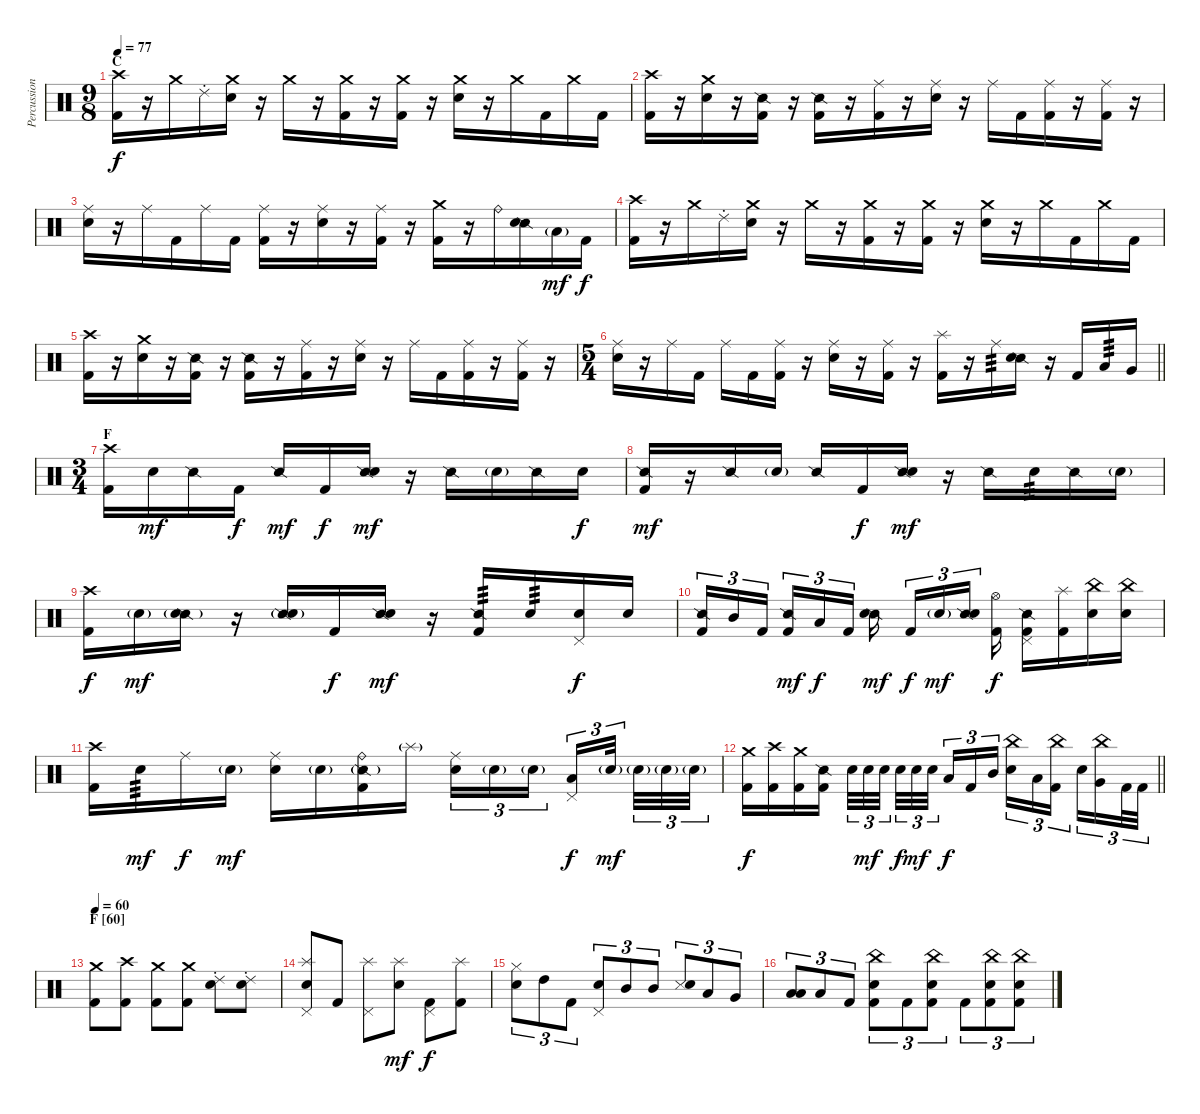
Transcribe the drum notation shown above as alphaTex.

\track ("Percussion" "Percussion") {solo instrument percussion}
\staff {score}
\articulation defaults
\ts (9 8)
\section ("" "C")
\tempo 77
\clef neutral
\ks c
("Crash high (hit)" "Kick (hit) 2").16{dy f} r.16 "Crash medium (hit)".16 "Ride (choke) 2".16 ("Crash medium (hit)" "Snare (hit) 2").16 r.16 "Crash medium (hit)".16 r.16 ("Crash medium (hit)" "Kick (hit) 2").16 r.16 ("Crash medium (hit)" "Kick (hit) 2").16 r.16 ("Crash medium (hit)" "Snare (hit) 2").16 r.16 "Crash medium (hit)".16 "Kick (hit) 2".16 "Crash medium (hit)".16 "Kick (hit) 2".16 |
("Crash high (hit)" "Kick (hit) 2").16 r.16 ("Crash medium (hit)" "Snare (hit) 2").16 r.16 ("Snare (side stick) 2" "Kick (hit) 2").16 r.16 ("Snare (side stick) 2" "Kick (hit) 2").16 r.16 ("Ride (middle)" "Kick (hit) 2").16 r.16 ("Ride (middle)" "Snare (hit) 2").16 r.16 "Ride (middle)".16 "Kick (hit) 2".16 ("Ride (middle)" "Kick (hit) 2").16 r.16 ("Ride (middle)" "Kick (hit) 2").16 r.16 |
("Ride (middle)" "Snare (hit) 2").16 r.16 "Ride (middle)".16 "Kick (hit) 2".16 "Ride (middle)".16 "Kick (hit) 2".16 ("Ride (middle)" "Kick (hit) 2").16 r.16 ("Ride (middle)" "Snare (hit) 2").16 r.16 ("Ride (middle)" "Kick (hit) 2").16 r.16 ("Crash medium (hit)" "Kick (hit) 2").16 r.16 "Ride (bell)".16 ("Snare (side stick) 2" "Snare (hit) 2").16 "Low Tom (hit)"{g}.16{dy mf} "Kick (hit) 2".16{dy f} |
("Crash high (hit)" "Kick (hit) 2").16 r.16 "Crash medium (hit)".16 "Ride (choke) 2".16 ("Crash medium (hit)" "Snare (hit) 2").16 r.16 "Crash medium (hit)".16 r.16 ("Crash medium (hit)" "Kick (hit) 2").16 r.16 ("Crash medium (hit)" "Kick (hit) 2").16 r.16 ("Crash medium (hit)" "Snare (hit) 2").16 r.16 "Crash medium (hit)".16 "Kick (hit) 2".16 "Crash medium (hit)".16 "Kick (hit) 2".16 |
("Crash high (hit)" "Kick (hit) 2").16 r.16 ("Crash medium (hit)" "Snare (hit) 2").16 r.16 ("Snare (side stick) 2" "Kick (hit) 2").16 r.16 ("Snare (side stick) 2" "Kick (hit) 2").16 r.16 ("Ride (middle)" "Kick (hit) 2").16 r.16 ("Ride (middle)" "Snare (hit) 2").16 r.16 "Ride (middle)".16 "Kick (hit) 2".16 ("Ride (middle)" "Kick (hit) 2").16 r.16 ("Ride (middle)" "Kick (hit) 2").16 r.16 |
\ts (5 4)
\barLineRight lightlight
("Ride (middle)" "Snare (hit) 2").16 r.16 "Ride (middle)".16 "Kick (hit) 2".16 "Ride (middle)".16 "Kick (hit) 2".16 ("Ride (middle)" "Kick (hit) 2").16 r.16 ("Ride (middle)" "Snare (hit) 2").16 r.16 ("Ride (middle)" "Kick (hit) 2").16 r.16 ("Splash (hit)" "Kick (hit) 2").16 r.16 "Ride (middle)".16{tp 3} ("Snare (side stick) 2" "Snare (hit) 2").16 r.16 "Kick (hit) 2".16 "Low Tom (hit)".16{tp 3} "Very Low Tom (hit)".16 |
\ts (3 4)
\section ("" "F")
("Crash high (hit)" "Kick (hit) 2").16 "Snare (hit) 2".16{dy mf} "Snare (side stick) 2".16 "Kick (hit) 2".16{dy f} "Snare (side stick) 2".16{dy mf} "Kick (hit) 2".16{dy f} ("Snare (side stick) 2" "Snare (hit) 2").16{dy mf} r.16 "Snare (side stick) 2".16 "Snare (hit) 2"{g}.16 "Snare (side stick) 2".16 "Snare (hit) 2".16{dy f} |
("Snare (side stick) 2" "Kick (hit) 2").16{dy mf} r.16 "Snare (side stick) 2".16 "Snare (hit) 2"{g}.16 "Snare (side stick) 2".16 "Kick (hit) 2".16{dy f} ("Snare (side stick) 2" "Snare (hit) 2").16{dy mf} r.16 "Snare (side stick) 2".16 "Snare (hit) 2".16{tp 3} "Snare (side stick) 2".16 "Snare (hit) 2"{g}.16 |
("Crash high (hit)" "Kick (hit) 2").16{dy f} "Snare (hit) 2"{g}.16{dy mf} ("Snare (side stick) 2" "Snare (hit) 2"{g}).16 r.16 ("Snare (side stick) 2" "Snare (hit) 2"{g}).16 "Kick (hit) 2".16{dy f} ("Snare (side stick) 2" "Snare (hit) 2").16{dy mf} r.16 ("Snare (side stick) 2" "Kick (hit) 2").16{tp 3} "Snare (hit) 2".16{tp 3} ("Pedal Hi-Hat (hit)" "Snare (hit) 2").16{dy f} "Snare (hit) 2".16 |
("Snare (side stick) 2" "Kick (hit) 2").16{tu (3 2)} "Mid Tom (hit)".16{tu (3 2)} "Kick (hit) 2".16{tu (3 2) beam splitsecondary} ("Snare (side stick) 2" "Kick (hit) 2").16{tu (3 2) dy mf} "Low Tom (hit)".16{tu (3 2) dy f} "Kick (hit) 2".16{tu (3 2)} ("Snare (side stick) 2" "Snare (hit) 2").16{dy mf beam splitsecondary} "Kick (hit) 2".16{tu (3 2) dy f} "Snare (hit) 2"{g}.16{tu (3 2) dy mf} ("Snare (side stick) 2" "Snare (hit) 2").16{tu (3 2) beam splitsecondary} ("Hi-Hat (open)" "Kick (hit) 2").16{dy f} ("Snare (side stick) 2" "Pedal Hi-Hat (hit)" "Kick (hit) 2").16 ("Splash (hit)" "Kick (hit) 2").16 ("China (hit)" "Snare (hit) 2").16 ("China (hit)" "Snare (hit) 2").16 |
("Crash high (hit)" "Kick (hit) 2").16 "Snare (hit) 2".16{tp 3 dy mf} "Ride (middle)".16{dy f} "Snare (hit) 2"{g}.16{dy mf} ("Ride (middle)" "Snare (hit) 2").16 "Snare (hit) 2"{g}.16 ("Ride (bell)" "Snare (side stick) 2"{g} "Kick (hit) 2").16 "Splash (hit)"{g}.16 ("Ride (middle)" "Snare (hit) 2").16{tu (3 2)} "Snare (hit) 2"{g}.16{tu (3 2)} "Snare (hit) 2"{g}.16{tu (3 2) beam splitsecondary} ("Pedal Hi-Hat (hit)" "Low Tom (hit)").16{tu (3 2) dy f} "Snare (hit) 2"{g}.32{tu (3 2) dy mf beam splitsecondary} "Snare (hit) 2"{g}.32{tu (3 2)} "Snare (hit) 2"{g}.32{tu (3 2)} "Snare (hit) 2"{g}.32{tu (3 2)} |
\barLineRight lightlight
("Crash medium (hit)" "Kick (hit) 2").16{dy f} ("Crash high (hit)" "Kick (hit) 2").16 ("Crash medium (hit)" "Kick (hit) 2").16 ("Snare (side stick) 2" "Kick (hit) 2").16 "Snare (hit) 2".32{tu (3 2)} "Snare (hit) 2".32{tu (3 2) dy mf} "Snare (hit) 2".32{tu (3 2) beam splitsecondary} "Snare (hit) 2".32{tu (3 2) dy f} "Snare (hit) 2".32{tu (3 2) dy mf} "Snare (hit) 2".32{tu (3 2) beam splitsecondary} "Low Tom (hit)".16{tu (3 2) dy f} "Kick (hit) 2".16{tu (3 2)} "Mid Tom (hit)".16{tu (3 2)} ("China (hit)" "Snare (hit) 2").16{tu (3 2)} "Low Tom (hit)".16{tu (3 2)} ("China (hit)" "Kick (hit) 2").16{tu (3 2) beam splitsecondary} "Snare (hit) 2".16{tu (3 2)} ("China (hit)" "Very Low Tom (hit)").16{tu (3 2)} "Kick (hit) 2".32{tu (3 2)} "Kick (hit) 2".32{tu (3 2)} |
\section ("" "F [60]")
\tempo 60
("Crash medium (hit)" "Kick (hit) 2").8 ("Crash high (hit)" "Kick (hit) 2").8 ("Crash medium (hit)" "Kick (hit) 2").8 ("Crash medium (hit)" "Kick (hit) 2").8 ("Ride (choke) 2" "Snare (hit) 2").8 ("Ride (choke) 2" "Snare (hit) 2").8 |
("Splash (hit)" "Pedal Hi-Hat (hit)" "Snare (hit) 2").8 "Kick (hit) 2".8 ("Splash (hit)" "Pedal Hi-Hat (hit)").8 ("Splash (hit)" "Snare (hit) 2").8{dy mf} ("Pedal Hi-Hat (hit)" "Kick (hit) 2").8{dy f} ("Splash (hit)" "Kick (hit) 2").8 |
("Hi-Hat (closed)" "Snare (hit) 2").8{tu (3 2)} "High Tom (hit)".8{tu (3 2)} "Kick (hit) 2".8{tu (3 2)} ("Pedal Hi-Hat (hit)" "Snare (hit) 2").8{tu (3 2)} "Mid Tom (hit)".8{tu (3 2)} "Mid Tom (hit)".8{tu (3 2)} ("Metronome (hit)" "Snare (hit) 2").8{tu (3 2) bu 480} "Low Tom (hit)".8{tu (3 2)} "Very Low Tom (hit)".8{tu (3 2)} |
("Low Floor Tom (hit)" "Low Floor Tom (hit)").8{tu (3 2) bu 480} "Low Floor Tom (hit)".8{tu (3 2)} "Kick (hit) 2".8{tu (3 2)} ("China (hit)" "Snare (hit) 2" "Kick (hit) 2").8{tu (3 2)} "Kick (hit) 2".8{tu (3 2)} ("China (hit)" "Snare (hit) 2" "Kick (hit) 2").8{tu (3 2)} "Kick (hit) 2".8{tu (3 2)} ("China (hit)" "Snare (hit) 2" "Kick (hit) 2").8{tu (3 2)} ("China (hit)" "Snare (hit) 2" "Kick (hit) 2").8{tu (3 2)}
